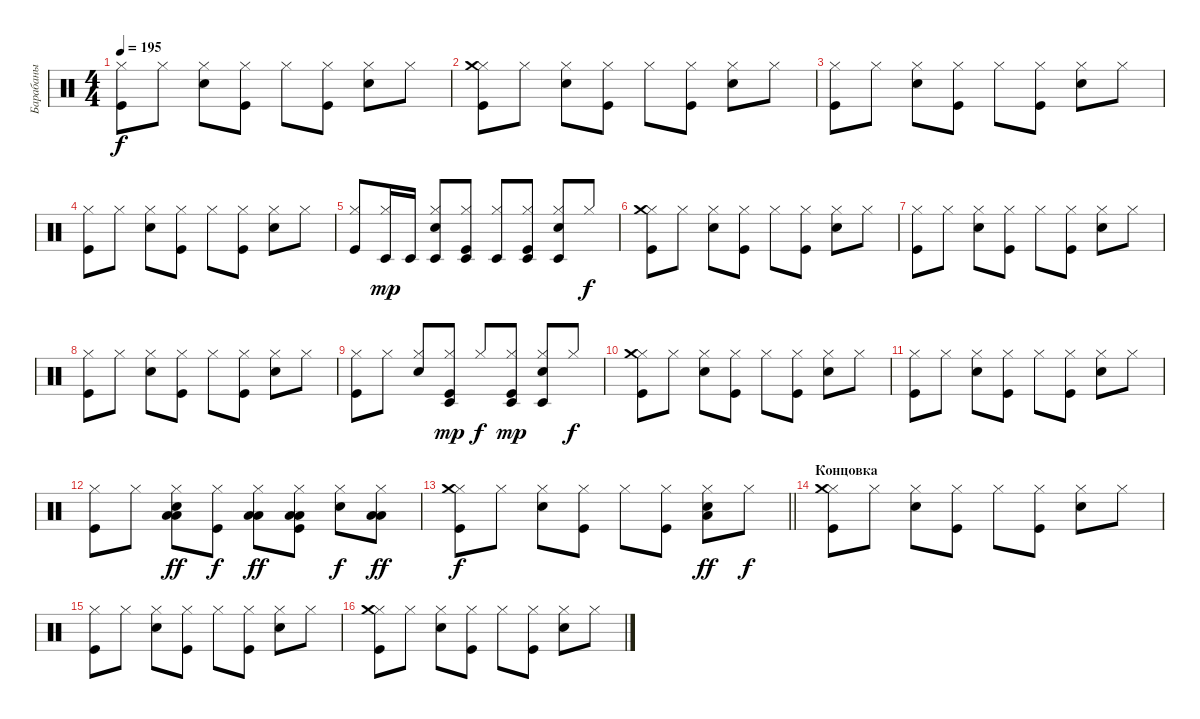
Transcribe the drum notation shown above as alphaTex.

\track ("Барабаны" "Барабаны") {instrument percussion}
\staff {score}
\articulation defaults
\ts (4 4)
\tempo 195
\clef neutral
\ks c
("Kick (hit)" "Hi-Hat (closed)").8{dy f} "Hi-Hat (closed)".8 ("Snare (hit) 2" "Hi-Hat (closed)").8 ("Kick (hit)" "Hi-Hat (closed)").8 "Hi-Hat (closed)".8 ("Kick (hit)" "Hi-Hat (closed)").8 ("Snare (hit) 2" "Hi-Hat (closed)").8 "Hi-Hat (closed)".8 |
("Kick (hit)" "Hi-Hat (closed)" "Crash medium (hit)").8 "Hi-Hat (closed)".8 ("Snare (hit) 2" "Hi-Hat (closed)").8 ("Kick (hit)" "Hi-Hat (closed)").8 "Hi-Hat (closed)".8 ("Kick (hit)" "Hi-Hat (closed)").8 ("Snare (hit) 2" "Hi-Hat (closed)").8 "Hi-Hat (closed)".8 |
("Kick (hit)" "Hi-Hat (closed)").8 "Hi-Hat (closed)".8 ("Snare (hit) 2" "Hi-Hat (closed)").8 ("Kick (hit)" "Hi-Hat (closed)").8 "Hi-Hat (closed)".8 ("Kick (hit)" "Hi-Hat (closed)").8 ("Snare (hit) 2" "Hi-Hat (closed)").8 "Hi-Hat (closed)".8 |
("Kick (hit)" "Hi-Hat (closed)").8 "Hi-Hat (closed)".8 ("Snare (hit) 2" "Hi-Hat (closed)").8 ("Kick (hit)" "Hi-Hat (closed)").8 "Hi-Hat (closed)".8 ("Kick (hit)" "Hi-Hat (closed)").8 ("Snare (hit) 2" "Hi-Hat (closed)").8 "Hi-Hat (closed)".8 |
("Kick (hit)" "Hi-Hat (closed)").8 ("Hi-Hat (closed)" "Timbale low (hit)").16{dy mp} "Timbale low (hit)".16 ("Snare (hit) 2" "Hi-Hat (closed)" "Timbale low (hit)").8 ("Kick (hit)" "Hi-Hat (closed)" "Timbale low (hit)").8 ("Hi-Hat (closed)" "Timbale low (hit)").8 ("Kick (hit)" "Hi-Hat (closed)" "Timbale low (hit)").8 ("Snare (hit) 2" "Hi-Hat (closed)" "Timbale low (hit)").8 "Hi-Hat (closed)".8{dy f} |
("Kick (hit)" "Hi-Hat (closed)" "Crash medium (hit)").8 "Hi-Hat (closed)".8 ("Snare (hit) 2" "Hi-Hat (closed)").8 ("Kick (hit)" "Hi-Hat (closed)").8 "Hi-Hat (closed)".8 ("Kick (hit)" "Hi-Hat (closed)").8 ("Snare (hit) 2" "Hi-Hat (closed)").8 "Hi-Hat (closed)".8 |
("Kick (hit)" "Hi-Hat (closed)").8 "Hi-Hat (closed)".8 ("Snare (hit) 2" "Hi-Hat (closed)").8 ("Kick (hit)" "Hi-Hat (closed)").8 "Hi-Hat (closed)".8 ("Kick (hit)" "Hi-Hat (closed)").8 ("Snare (hit) 2" "Hi-Hat (closed)").8 "Hi-Hat (closed)".8 |
("Kick (hit)" "Hi-Hat (closed)").8 "Hi-Hat (closed)".8 ("Snare (hit) 2" "Hi-Hat (closed)").8 ("Kick (hit)" "Hi-Hat (closed)").8 "Hi-Hat (closed)".8 ("Kick (hit)" "Hi-Hat (closed)").8 ("Snare (hit) 2" "Hi-Hat (closed)").8 "Hi-Hat (closed)".8 |
("Kick (hit)" "Hi-Hat (closed)").8 "Hi-Hat (closed)".8 ("Snare (hit) 2" "Hi-Hat (closed)").8 ("Kick (hit)" "Hi-Hat (closed)" "Timbale low (hit)").8{dy mp} "Hi-Hat (closed)".8{dy f} ("Kick (hit)" "Hi-Hat (closed)" "Timbale low (hit)").8{dy mp} ("Snare (hit) 2" "Hi-Hat (closed)" "Timbale low (hit)").8 "Hi-Hat (closed)".8{dy f} |
("Kick (hit)" "Hi-Hat (closed)" "Crash medium (hit)").8 "Hi-Hat (closed)".8 ("Snare (hit) 2" "Hi-Hat (closed)").8 ("Kick (hit)" "Hi-Hat (closed)").8 "Hi-Hat (closed)".8 ("Kick (hit)" "Hi-Hat (closed)").8 ("Snare (hit) 2" "Hi-Hat (closed)").8 "Hi-Hat (closed)".8 |
("Kick (hit)" "Hi-Hat (closed)").8 "Hi-Hat (closed)".8 ("Snare (hit) 2" "Hi-Hat (closed)").8 ("Kick (hit)" "Hi-Hat (closed)").8 "Hi-Hat (closed)".8 ("Kick (hit)" "Hi-Hat (closed)").8 ("Snare (hit) 2" "Hi-Hat (closed)").8 "Hi-Hat (closed)".8 |
("Kick (hit)" "Hi-Hat (closed)").8 "Hi-Hat (closed)".8 ("Snare (hit) 2" "Hi-Hat (closed)" "Low Tom (hit)" "Low Tom (hit)").8{dy ff} ("Kick (hit)" "Hi-Hat (closed)").8{dy f} ("Hi-Hat (closed)" "Low Tom (hit)" "Low Tom (hit)").8{dy ff} ("Kick (hit)" "Hi-Hat (closed)" "Low Tom (hit)" "Low Tom (hit)").8 ("Snare (hit) 2" "Hi-Hat (closed)").8{dy f} ("Hi-Hat (closed)" "Low Tom (hit)" "Low Tom (hit)").8{dy ff} |
\barLineRight lightlight
("Kick (hit)" "Hi-Hat (closed)" "Crash medium (hit)").8{dy f} "Hi-Hat (closed)".8 ("Snare (hit) 2" "Hi-Hat (closed)").8 ("Kick (hit)" "Hi-Hat (closed)").8 "Hi-Hat (closed)".8 ("Kick (hit)" "Hi-Hat (closed)").8 ("Snare (hit) 2" "Hi-Hat (closed)" "Low Tom (hit)").8{dy ff} "Hi-Hat (closed)".8{dy f} |
\section ("" "Концовка")
("Kick (hit)" "Hi-Hat (closed)" "Crash medium (hit)").8 "Hi-Hat (closed)".8 ("Snare (hit) 2" "Hi-Hat (closed)").8 ("Kick (hit)" "Hi-Hat (closed)").8 "Hi-Hat (closed)".8 ("Kick (hit)" "Hi-Hat (closed)").8 ("Snare (hit) 2" "Hi-Hat (closed)").8 "Hi-Hat (closed)".8 |
("Kick (hit)" "Hi-Hat (closed)").8 "Hi-Hat (closed)".8 ("Snare (hit) 2" "Hi-Hat (closed)").8 ("Kick (hit)" "Hi-Hat (closed)").8 "Hi-Hat (closed)".8 ("Kick (hit)" "Hi-Hat (closed)").8 ("Snare (hit) 2" "Hi-Hat (closed)").8 "Hi-Hat (closed)".8 |
("Kick (hit)" "Hi-Hat (closed)" "Crash medium (hit)").8 "Hi-Hat (closed)".8 ("Snare (hit) 2" "Hi-Hat (closed)").8 ("Kick (hit)" "Hi-Hat (closed)").8 "Hi-Hat (closed)".8 ("Kick (hit)" "Hi-Hat (closed)").8 ("Snare (hit) 2" "Hi-Hat (closed)").8 "Hi-Hat (closed)".8
